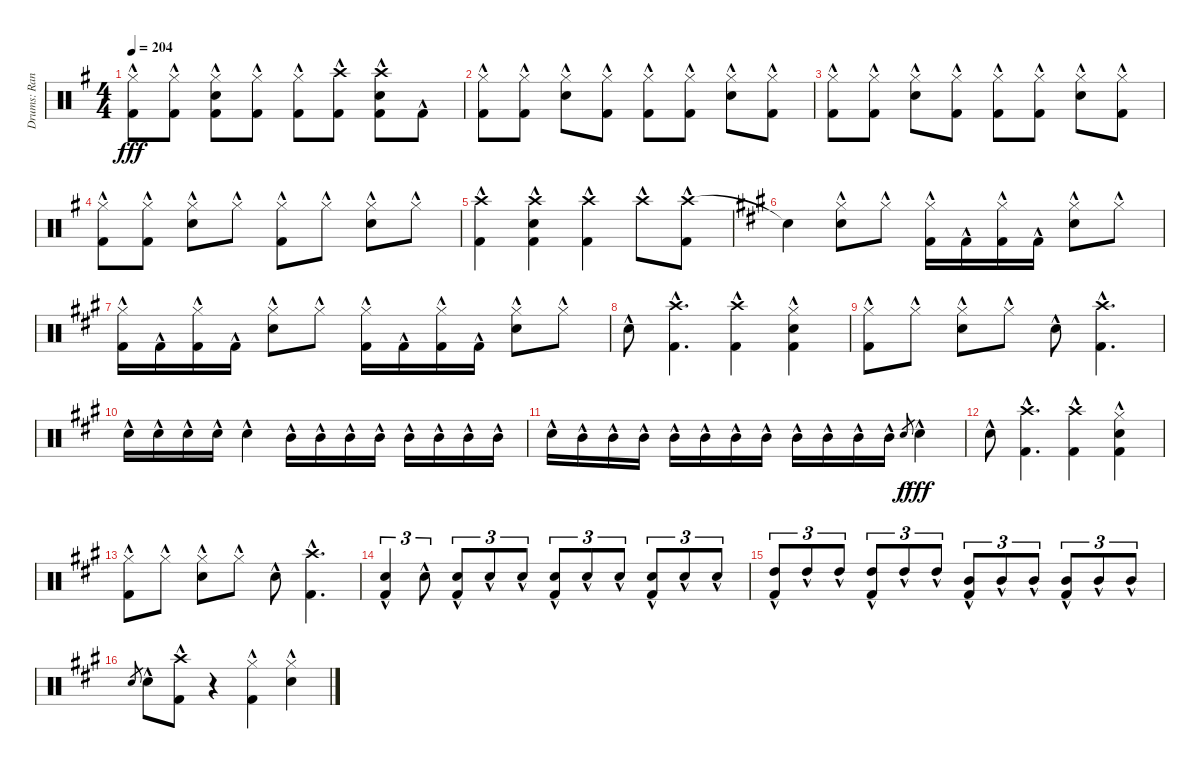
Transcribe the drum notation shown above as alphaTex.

\track ("Drums: Randy" "Drums: Ran") {instrument percussion}
\staff {score}
\articulation defaults
\ts (4 4)
\tempo 204
\clef neutral
\ks g
("Hi-Hat (closed)"{hac} "Kick (hit) 2"{hac}).8{dy fff} ("Hi-Hat (closed)"{hac} "Kick (hit) 2"{hac}).8 ("Hi-Hat (closed)"{hac} "Snare (hit) 2"{hac} "Kick (hit) 2"{hac}).8 ("Hi-Hat (closed)"{hac} "Kick (hit) 2"{hac}).8 ("Hi-Hat (closed)"{hac} "Kick (hit) 2"{hac}).8 ("Crash high (hit)"{hac} "Kick (hit) 2"{hac}).8 ("Crash high (hit)"{hac} "Snare (hit) 2"{hac} "Kick (hit) 2"{hac}).8 "Kick (hit) 2"{hac}.8 |
("Hi-Hat (closed)"{hac} "Kick (hit) 2"{hac}).8 ("Hi-Hat (closed)"{hac} "Kick (hit) 2"{hac}).8 ("Hi-Hat (closed)"{hac} "Snare (hit) 2"{hac}).8 ("Hi-Hat (closed)"{hac} "Kick (hit) 2"{hac}).8 ("Hi-Hat (closed)"{hac} "Kick (hit) 2"{hac}).8 ("Hi-Hat (closed)"{hac} "Kick (hit) 2"{hac}).8 ("Hi-Hat (closed)"{hac} "Snare (hit) 2"{hac}).8 ("Hi-Hat (closed)"{hac} "Kick (hit) 2"{hac}).8 |
("Hi-Hat (closed)"{hac} "Kick (hit) 2"{hac}).8 ("Hi-Hat (closed)"{hac} "Kick (hit) 2"{hac}).8 ("Hi-Hat (closed)"{hac} "Snare (hit) 2"{hac}).8 ("Hi-Hat (closed)"{hac} "Kick (hit) 2"{hac}).8 ("Hi-Hat (closed)"{hac} "Kick (hit) 2"{hac}).8 ("Hi-Hat (closed)"{hac} "Kick (hit) 2"{hac}).8 ("Hi-Hat (closed)"{hac} "Snare (hit) 2"{hac}).8 ("Hi-Hat (closed)"{hac} "Kick (hit) 2"{hac}).8 |
("Hi-Hat (closed)"{hac} "Kick (hit) 2"{hac}).8 ("Hi-Hat (closed)"{hac} "Kick (hit) 2"{hac}).8 ("Hi-Hat (closed)"{hac} "Snare (hit) 2"{hac}).8 "Hi-Hat (closed)"{hac}.8 ("Hi-Hat (closed)"{hac} "Kick (hit) 2"{hac}).8 "Hi-Hat (closed)"{hac}.8 ("Hi-Hat (closed)"{hac} "Snare (hit) 2"{hac}).8 "Hi-Hat (closed)"{hac}.8 |
("Crash high (hit)"{hac} "Kick (hit) 2"{hac}).4 ("Crash high (hit)"{hac} "Snare (hit) 2"{hac} "Kick (hit) 2"{hac}).4 ("Crash high (hit)"{hac} "Kick (hit) 2"{hac}).4 "Crash high (hit)"{hac}.8 ("Crash high (hit)"{hac} "Kick (hit) 2"{hac}).8 |
\ks a "Snare (hit)"{t}.4
("Hi-Hat (closed)"{hac} "Snare (hit) 2"{hac}).8 "Hi-Hat (closed)"{hac}.8 ("Hi-Hat (closed)"{hac} "Kick (hit) 2"{hac}).16 "Kick (hit) 2"{hac}.16 ("Hi-Hat (closed)"{hac} "Kick (hit) 2"{hac}).16 "Kick (hit) 2"{hac}.16 ("Hi-Hat (closed)"{hac} "Snare (hit) 2"{hac}).8 "Hi-Hat (closed)"{hac}.8 |
("Hi-Hat (closed)"{hac} "Kick (hit) 2"{hac}).16 "Kick (hit) 2"{hac}.16 ("Hi-Hat (closed)"{hac} "Kick (hit) 2"{hac}).16 "Kick (hit) 2"{hac}.16 ("Hi-Hat (closed)"{hac} "Snare (hit) 2"{hac}).8 "Hi-Hat (closed)"{hac}.8 ("Hi-Hat (closed)"{hac} "Kick (hit) 2"{hac}).16 "Kick (hit) 2"{hac}.16 ("Hi-Hat (closed)"{hac} "Kick (hit) 2"{hac}).16 "Kick (hit) 2"{hac}.16 ("Hi-Hat (closed)"{hac} "Snare (hit) 2"{hac}).8 "Hi-Hat (closed)"{hac}.8 |
"Snare (hit) 2"{hac}.8 ("Crash high (hit)"{hac} "Kick (hit) 2"{hac}).4{d} ("Crash high (hit)"{hac} "Kick (hit) 2"{hac}).4 ("Hi-Hat (closed)"{hac} "Snare (hit) 2"{hac} "Kick (hit) 2"{hac}).4 |
("Hi-Hat (closed)"{hac} "Kick (hit) 2"{hac}).8 "Hi-Hat (closed)"{hac}.8 ("Hi-Hat (closed)"{hac} "Snare (hit) 2"{hac}).8 "Hi-Hat (closed)"{hac}.8 "Snare (hit) 2"{hac}.8 ("Crash high (hit)"{hac} "Kick (hit) 2"{hac}).4{d} |
"Snare (hit) 2"{hac}.16 "Snare (hit) 2"{hac}.16 "Snare (hit) 2"{hac}.16 "Snare (hit) 2"{hac}.16 "Snare (hit) 2"{hac}.4 "Mid Tom (hit)"{hac}.16 "Mid Tom (hit)"{hac}.16 "Mid Tom (hit)"{hac}.16 "Mid Tom (hit)"{hac}.16 "Mid Tom (hit)"{hac}.16 "Mid Tom (hit)"{hac}.16 "Mid Tom (hit)"{hac}.16 "Mid Tom (hit)"{hac}.16 |
"Snare (hit) 2"{hac}.16 "Mid Tom (hit)"{hac}.16 "Mid Tom (hit)"{hac}.16 "Mid Tom (hit)"{hac}.16 "Mid Tom (hit)"{hac}.16 "Mid Tom (hit)"{hac}.16 "Mid Tom (hit)"{hac}.16 "Mid Tom (hit)"{hac}.16 "Mid Tom (hit)"{hac}.16 "Mid Tom (hit)"{hac}.16 "Mid Tom (hit)"{hac}.16 "Mid Tom (hit)"{hac}.16 "Snare (hit) 2".8{gr dy f} "Snare (hit) 2"{hac}.4{dy fff} |
"Snare (hit) 2"{hac}.8 ("Crash high (hit)"{hac} "Kick (hit) 2"{hac}).4{d} ("Crash high (hit)"{hac} "Kick (hit) 2"{hac}).4 ("Hi-Hat (closed)"{hac} "Snare (hit) 2"{hac} "Kick (hit) 2"{hac}).4 |
("Hi-Hat (closed)"{hac} "Kick (hit) 2"{hac}).8 "Hi-Hat (closed)"{hac}.8 ("Hi-Hat (closed)"{hac} "Snare (hit) 2"{hac}).8 "Hi-Hat (closed)"{hac}.8 "Snare (hit) 2"{hac}.8 ("Crash high (hit)"{hac} "Kick (hit) 2"{hac}).4{d} |
("Snare (hit) 2"{hac} "Kick (hit) 2"{hac}).4{tu (3 2)} "Snare (hit) 2"{hac}.8{tu (3 2)} ("Snare (hit) 2"{hac} "Kick (hit) 2"{hac}).8{tu (3 2)} "Snare (hit) 2"{hac}.8{tu (3 2)} "Snare (hit) 2"{hac}.8{tu (3 2)} ("Snare (hit) 2"{hac} "Kick (hit) 2"{hac}).8{tu (3 2)} "Snare (hit) 2"{hac}.8{tu (3 2)} "Snare (hit) 2"{hac}.8{tu (3 2)} ("Snare (hit) 2"{hac} "Kick (hit) 2"{hac}).8{tu (3 2)} "Snare (hit) 2"{hac}.8{tu (3 2)} "Snare (hit) 2"{hac}.8{tu (3 2)} |
("High Tom (hit)"{hac} "Kick (hit) 2"{hac}).8{tu (3 2)} "High Tom (hit)"{hac}.8{tu (3 2)} "High Tom (hit)"{hac}.8{tu (3 2)} ("High Tom (hit)"{hac} "Kick (hit) 2"{hac}).8{tu (3 2)} "High Tom (hit)"{hac}.8{tu (3 2)} "High Tom (hit)"{hac}.8{tu (3 2)} ("Mid Tom (hit)"{hac} "Kick (hit) 2"{hac}).8{tu (3 2)} "Mid Tom (hit)"{hac}.8{tu (3 2)} "Mid Tom (hit)"{hac}.8{tu (3 2)} ("Mid Tom (hit)"{hac} "Kick (hit) 2"{hac}).8{tu (3 2)} "Mid Tom (hit)"{hac}.8{tu (3 2)} "Mid Tom (hit)"{hac}.8{tu (3 2)} |
"Snare (hit) 2".8{gr} "Snare (hit) 2"{hac}.8 ("Crash high (hit)"{hac} "Kick (hit) 2"{hac}).8 r.4 ("Hi-Hat (closed)"{hac} "Kick (hit) 2"{hac}).4 ("Hi-Hat (closed)"{hac} "Snare (hit) 2"{hac}).4
